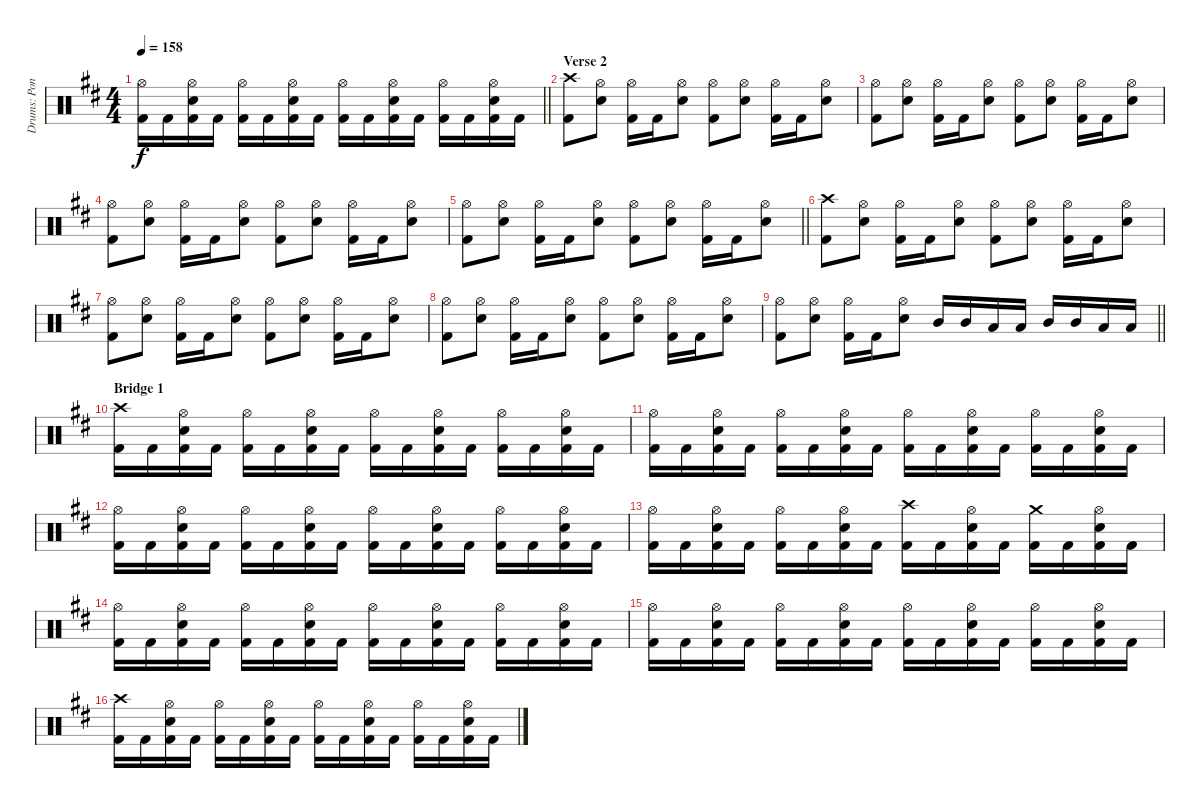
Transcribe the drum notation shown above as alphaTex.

\track ("Drums: Pontus Jansson" "Drums: Pon") {instrument percussion}
\staff {score}
\articulation defaults
\ts (4 4)
\tempo 158
\clef neutral
\barLineRight lightlight
\ks bminor
("Hi-Hat (open)" "Kick (hit) 2").16{dy f} "Kick (hit) 2".16 ("Hi-Hat (open)" "Electric Snare (hit)" "Kick (hit) 2").16 "Kick (hit) 2".16 ("Hi-Hat (open)" "Kick (hit) 2").16 "Kick (hit) 2".16 ("Hi-Hat (open)" "Electric Snare (hit)" "Kick (hit) 2").16 "Kick (hit) 2".16 ("Hi-Hat (open)" "Kick (hit) 2").16 "Kick (hit) 2".16 ("Hi-Hat (open)" "Electric Snare (hit)" "Kick (hit) 2").16 "Kick (hit) 2".16 ("Hi-Hat (open)" "Kick (hit) 2").16 "Kick (hit) 2".16 ("Hi-Hat (open)" "Electric Snare (hit)" "Kick (hit) 2").16 "Kick (hit) 2".16 |
\section ("" "Verse 2")
("Crash high (hit)" "Kick (hit) 2").8 ("Hi-Hat (open)" "Electric Snare (hit)").8 ("Hi-Hat (open)" "Kick (hit) 2").16 "Kick (hit) 2".16 ("Hi-Hat (open)" "Electric Snare (hit)").8 ("Hi-Hat (open)" "Kick (hit) 2").8 ("Hi-Hat (open)" "Electric Snare (hit)").8 ("Hi-Hat (open)" "Kick (hit) 2").16 "Kick (hit) 2".16 ("Hi-Hat (open)" "Electric Snare (hit)").8 |
("Hi-Hat (open)" "Kick (hit) 2").8 ("Hi-Hat (open)" "Electric Snare (hit)").8 ("Hi-Hat (open)" "Kick (hit) 2").16 "Kick (hit) 2".16 ("Hi-Hat (open)" "Electric Snare (hit)").8 ("Hi-Hat (open)" "Kick (hit) 2").8 ("Hi-Hat (open)" "Electric Snare (hit)").8 ("Hi-Hat (open)" "Kick (hit) 2").16 "Kick (hit) 2".16 ("Hi-Hat (open)" "Electric Snare (hit)").8 |
("Hi-Hat (open)" "Kick (hit) 2").8 ("Hi-Hat (open)" "Electric Snare (hit)").8 ("Hi-Hat (open)" "Kick (hit) 2").16 "Kick (hit) 2".16 ("Hi-Hat (open)" "Electric Snare (hit)").8 ("Hi-Hat (open)" "Kick (hit) 2").8 ("Hi-Hat (open)" "Electric Snare (hit)").8 ("Hi-Hat (open)" "Kick (hit) 2").16 "Kick (hit) 2".16 ("Hi-Hat (open)" "Electric Snare (hit)").8 |
\barLineRight lightlight
("Hi-Hat (open)" "Kick (hit) 2").8 ("Hi-Hat (open)" "Electric Snare (hit)").8 ("Hi-Hat (open)" "Kick (hit) 2").16 "Kick (hit) 2".16 ("Hi-Hat (open)" "Electric Snare (hit)").8 ("Hi-Hat (open)" "Kick (hit) 2").8 ("Hi-Hat (open)" "Electric Snare (hit)").8 ("Hi-Hat (open)" "Kick (hit) 2").16 "Kick (hit) 2".16 ("Hi-Hat (open)" "Electric Snare (hit)").8 |
("Crash high (hit)" "Kick (hit) 2").8 ("Hi-Hat (open)" "Electric Snare (hit)").8 ("Hi-Hat (open)" "Kick (hit) 2").16 "Kick (hit) 2".16 ("Hi-Hat (open)" "Electric Snare (hit)").8 ("Hi-Hat (open)" "Kick (hit) 2").8 ("Hi-Hat (open)" "Electric Snare (hit)").8 ("Hi-Hat (open)" "Kick (hit) 2").16 "Kick (hit) 2".16 ("Hi-Hat (open)" "Electric Snare (hit)").8 |
("Hi-Hat (open)" "Kick (hit) 2").8 ("Hi-Hat (open)" "Electric Snare (hit)").8 ("Hi-Hat (open)" "Kick (hit) 2").16 "Kick (hit) 2".16 ("Hi-Hat (open)" "Electric Snare (hit)").8 ("Hi-Hat (open)" "Kick (hit) 2").8 ("Hi-Hat (open)" "Electric Snare (hit)").8 ("Hi-Hat (open)" "Kick (hit) 2").16 "Kick (hit) 2".16 ("Hi-Hat (open)" "Electric Snare (hit)").8 |
("Hi-Hat (open)" "Kick (hit) 2").8 ("Hi-Hat (open)" "Electric Snare (hit)").8 ("Hi-Hat (open)" "Kick (hit) 2").16 "Kick (hit) 2".16 ("Hi-Hat (open)" "Electric Snare (hit)").8 ("Hi-Hat (open)" "Kick (hit) 2").8 ("Hi-Hat (open)" "Electric Snare (hit)").8 ("Hi-Hat (open)" "Kick (hit) 2").16 "Kick (hit) 2".16 ("Hi-Hat (open)" "Electric Snare (hit)").8 |
\barLineRight lightlight
("Hi-Hat (open)" "Kick (hit) 2").8 ("Hi-Hat (open)" "Electric Snare (hit)").8 ("Hi-Hat (open)" "Kick (hit) 2").16 "Kick (hit) 2".16 ("Hi-Hat (open)" "Electric Snare (hit)").8 "Mid Tom (hit)".16 "Mid Tom (hit)".16 "Low Tom (hit)".16 "Low Tom (hit)".16 "Mid Tom (hit)".16 "Mid Tom (hit)".16 "Low Tom (hit)".16 "Low Tom (hit)".16 |
\section ("" "Bridge 1")
("Crash high (hit)" "Kick (hit) 2").16 "Kick (hit) 2".16 ("Hi-Hat (open)" "Electric Snare (hit)" "Kick (hit) 2").16 "Kick (hit) 2".16 ("Hi-Hat (open)" "Kick (hit) 2").16 "Kick (hit) 2".16 ("Hi-Hat (open)" "Electric Snare (hit)" "Kick (hit) 2").16 "Kick (hit) 2".16 ("Hi-Hat (open)" "Kick (hit) 2").16 "Kick (hit) 2".16 ("Hi-Hat (open)" "Electric Snare (hit)" "Kick (hit) 2").16 "Kick (hit) 2".16 ("Hi-Hat (open)" "Kick (hit) 2").16 "Kick (hit) 2".16 ("Hi-Hat (open)" "Electric Snare (hit)" "Kick (hit) 2").16 "Kick (hit) 2".16 |
("Hi-Hat (open)" "Kick (hit) 2").16 "Kick (hit) 2".16 ("Hi-Hat (open)" "Electric Snare (hit)" "Kick (hit) 2").16 "Kick (hit) 2".16 ("Hi-Hat (open)" "Kick (hit) 2").16 "Kick (hit) 2".16 ("Hi-Hat (open)" "Electric Snare (hit)" "Kick (hit) 2").16 "Kick (hit) 2".16 ("Hi-Hat (open)" "Kick (hit) 2").16 "Kick (hit) 2".16 ("Hi-Hat (open)" "Electric Snare (hit)" "Kick (hit) 2").16 "Kick (hit) 2".16 ("Hi-Hat (open)" "Kick (hit) 2").16 "Kick (hit) 2".16 ("Hi-Hat (open)" "Electric Snare (hit)" "Kick (hit) 2").16 "Kick (hit) 2".16 |
("Hi-Hat (open)" "Kick (hit) 2").16 "Kick (hit) 2".16 ("Hi-Hat (open)" "Electric Snare (hit)" "Kick (hit) 2").16 "Kick (hit) 2".16 ("Hi-Hat (open)" "Kick (hit) 2").16 "Kick (hit) 2".16 ("Hi-Hat (open)" "Electric Snare (hit)" "Kick (hit) 2").16 "Kick (hit) 2".16 ("Hi-Hat (open)" "Kick (hit) 2").16 "Kick (hit) 2".16 ("Hi-Hat (open)" "Electric Snare (hit)" "Kick (hit) 2").16 "Kick (hit) 2".16 ("Hi-Hat (open)" "Kick (hit) 2").16 "Kick (hit) 2".16 ("Hi-Hat (open)" "Electric Snare (hit)" "Kick (hit) 2").16 "Kick (hit) 2".16 |
("Hi-Hat (open)" "Kick (hit) 2").16 "Kick (hit) 2".16 ("Hi-Hat (open)" "Electric Snare (hit)" "Kick (hit) 2").16 "Kick (hit) 2".16 ("Hi-Hat (open)" "Kick (hit) 2").16 "Kick (hit) 2".16 ("Hi-Hat (open)" "Electric Snare (hit)" "Kick (hit) 2").16 "Kick (hit) 2".16 ("Crash high (hit)" "Kick (hit) 2").16 "Kick (hit) 2".16 ("Hi-Hat (open)" "Electric Snare (hit)" "Kick (hit) 2").16 "Kick (hit) 2".16 ("Crash medium (hit)" "Kick (hit) 2").16 "Kick (hit) 2".16 ("Hi-Hat (open)" "Electric Snare (hit)" "Kick (hit) 2").16 "Kick (hit) 2".16 |
("Hi-Hat (open)" "Kick (hit) 2").16 "Kick (hit) 2".16 ("Hi-Hat (open)" "Electric Snare (hit)" "Kick (hit) 2").16 "Kick (hit) 2".16 ("Hi-Hat (open)" "Kick (hit) 2").16 "Kick (hit) 2".16 ("Hi-Hat (open)" "Electric Snare (hit)" "Kick (hit) 2").16 "Kick (hit) 2".16 ("Hi-Hat (open)" "Kick (hit) 2").16 "Kick (hit) 2".16 ("Hi-Hat (open)" "Electric Snare (hit)" "Kick (hit) 2").16 "Kick (hit) 2".16 ("Hi-Hat (open)" "Kick (hit) 2").16 "Kick (hit) 2".16 ("Hi-Hat (open)" "Electric Snare (hit)" "Kick (hit) 2").16 "Kick (hit) 2".16 |
("Hi-Hat (open)" "Kick (hit) 2").16 "Kick (hit) 2".16 ("Hi-Hat (open)" "Electric Snare (hit)" "Kick (hit) 2").16 "Kick (hit) 2".16 ("Hi-Hat (open)" "Kick (hit) 2").16 "Kick (hit) 2".16 ("Hi-Hat (open)" "Electric Snare (hit)" "Kick (hit) 2").16 "Kick (hit) 2".16 ("Hi-Hat (open)" "Kick (hit) 2").16 "Kick (hit) 2".16 ("Hi-Hat (open)" "Electric Snare (hit)" "Kick (hit) 2").16 "Kick (hit) 2".16 ("Hi-Hat (open)" "Kick (hit) 2").16 "Kick (hit) 2".16 ("Hi-Hat (open)" "Electric Snare (hit)" "Kick (hit) 2").16 "Kick (hit) 2".16 |
("Crash high (hit)" "Kick (hit) 2").16 "Kick (hit) 2".16 ("Hi-Hat (open)" "Electric Snare (hit)" "Kick (hit) 2").16 "Kick (hit) 2".16 ("Hi-Hat (open)" "Kick (hit) 2").16 "Kick (hit) 2".16 ("Hi-Hat (open)" "Electric Snare (hit)" "Kick (hit) 2").16 "Kick (hit) 2".16 ("Hi-Hat (open)" "Kick (hit) 2").16 "Kick (hit) 2".16 ("Hi-Hat (open)" "Electric Snare (hit)" "Kick (hit) 2").16 "Kick (hit) 2".16 ("Hi-Hat (open)" "Kick (hit) 2").16 "Kick (hit) 2".16 ("Hi-Hat (open)" "Electric Snare (hit)" "Kick (hit) 2").16 "Kick (hit) 2".16
